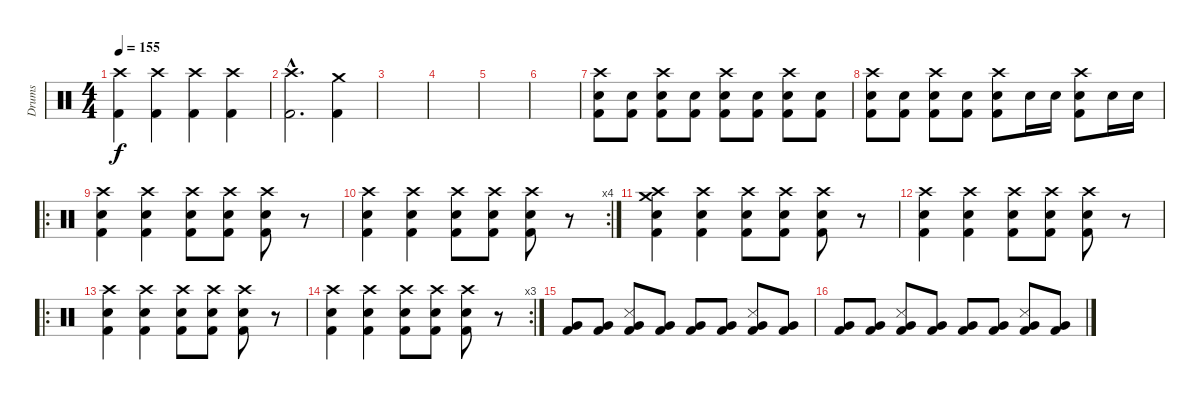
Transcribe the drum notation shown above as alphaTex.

\track ("Drums" "Drums") {instrument percussion}
\staff {score}
\articulation defaults
\ts (4 4)
\tempo 155
\clef neutral
\ks c
("Crash high (hit)" "Kick (hit) 2").4{dy f} ("Crash high (hit)" "Kick (hit) 2").4 ("Crash high (hit)" "Kick (hit) 2").4 ("Crash high (hit)" "Kick (hit) 2").4 |
("Crash high (hit)"{hac} "Kick (hit) 2"{hac}).2{d} ("Crash medium (hit)" "Kick (hit) 2").4 |
|
|
|
|
("Crash high (hit)" "Snare (hit) 2" "Kick (hit) 2").8 ("Snare (hit) 2" "Kick (hit) 2").8 ("Crash high (hit)" "Snare (hit) 2" "Kick (hit) 2").8 ("Snare (hit) 2" "Kick (hit) 2").8 ("Crash high (hit)" "Snare (hit) 2" "Kick (hit) 2").8 ("Snare (hit) 2" "Kick (hit) 2").8 ("Crash high (hit)" "Snare (hit) 2" "Kick (hit) 2").8 ("Snare (hit) 2" "Kick (hit) 2").8 |
("Crash high (hit)" "Snare (hit) 2" "Kick (hit) 2").8 ("Snare (hit) 2" "Kick (hit) 2").8 ("Crash high (hit)" "Snare (hit) 2" "Kick (hit) 2").8 ("Snare (hit) 2" "Kick (hit) 2").8 ("Crash high (hit)" "Snare (hit) 2" "Kick (hit) 2").8 "Snare (hit) 2".16 "Snare (hit) 2".16 ("Crash high (hit)" "Snare (hit) 2" "Kick (hit) 2").8 "Snare (hit) 2".16 "Snare (hit) 2".16 |
\ro
("Crash high (hit)" "Snare (hit) 2" "Kick (hit) 2").4 ("Crash high (hit)" "Snare (hit) 2" "Kick (hit) 2").4 ("Crash high (hit)" "Snare (hit) 2" "Kick (hit) 2").8 ("Crash high (hit)" "Snare (hit) 2" "Kick (hit) 2").8 ("Crash high (hit)" "Snare (hit) 2" "Kick (hit) 2").8 r.8 |
\rc 4
("Crash high (hit)" "Snare (hit) 2" "Kick (hit) 2").4 ("Crash high (hit)" "Snare (hit) 2" "Kick (hit) 2").4 ("Crash high (hit)" "Snare (hit) 2" "Kick (hit) 2").8 ("Crash high (hit)" "Snare (hit) 2" "Kick (hit) 2").8 ("Crash high (hit)" "Snare (hit) 2" "Kick (hit) 2").8 r.8 |
("Crash high (hit)" "Crash medium (hit)" "Snare (hit) 2" "Kick (hit) 2").4 ("Crash high (hit)" "Snare (hit) 2" "Kick (hit) 2").4 ("Crash high (hit)" "Snare (hit) 2" "Kick (hit) 2").8 ("Crash high (hit)" "Snare (hit) 2" "Kick (hit) 2").8 ("Crash high (hit)" "Snare (hit) 2" "Kick (hit) 2").8 r.8 |
("Crash high (hit)" "Snare (hit) 2" "Kick (hit) 2").4 ("Crash high (hit)" "Snare (hit) 2" "Kick (hit) 2").4 ("Crash high (hit)" "Snare (hit) 2" "Kick (hit) 2").8 ("Crash high (hit)" "Snare (hit) 2" "Kick (hit) 2").8 ("Crash high (hit)" "Snare (hit) 2" "Kick (hit) 2").8 r.8 |
\ro
("Crash high (hit)" "Snare (hit) 2" "Kick (hit) 2").4 ("Crash high (hit)" "Snare (hit) 2" "Kick (hit) 2").4 ("Crash high (hit)" "Snare (hit) 2" "Kick (hit) 2").8 ("Crash high (hit)" "Snare (hit) 2" "Kick (hit) 2").8 ("Crash high (hit)" "Snare (hit) 2" "Kick (hit) 2").8 r.8 |
\rc 3
("Crash high (hit)" "Snare (hit) 2" "Kick (hit) 2").4 ("Crash high (hit)" "Snare (hit) 2" "Kick (hit) 2").4 ("Crash high (hit)" "Snare (hit) 2" "Kick (hit) 2").8 ("Crash high (hit)" "Snare (hit) 2" "Kick (hit) 2").8 ("Crash high (hit)" "Snare (hit) 2" "Kick (hit) 2").8 r.8 |
("Very Low Tom (hit)" "Kick (hit) 2").8 ("Very Low Tom (hit)" "Kick (hit) 2").8 ("Snare (side stick) 3" "Very Low Tom (hit)" "Kick (hit) 2").8 ("Very Low Tom (hit)" "Kick (hit) 2").8 ("Very Low Tom (hit)" "Kick (hit) 2").8 ("Very Low Tom (hit)" "Kick (hit) 2").8 ("Snare (side stick) 3" "Very Low Tom (hit)" "Kick (hit) 2").8 ("Very Low Tom (hit)" "Kick (hit) 2").8 |
("Very Low Tom (hit)" "Kick (hit) 2").8 ("Very Low Tom (hit)" "Kick (hit) 2").8 ("Snare (side stick) 3" "Very Low Tom (hit)" "Kick (hit) 2").8 ("Very Low Tom (hit)" "Kick (hit) 2").8 ("Very Low Tom (hit)" "Kick (hit) 2").8 ("Very Low Tom (hit)" "Kick (hit) 2").8 ("Snare (side stick) 3" "Very Low Tom (hit)" "Kick (hit) 2").8 ("Very Low Tom (hit)" "Kick (hit) 2").8
